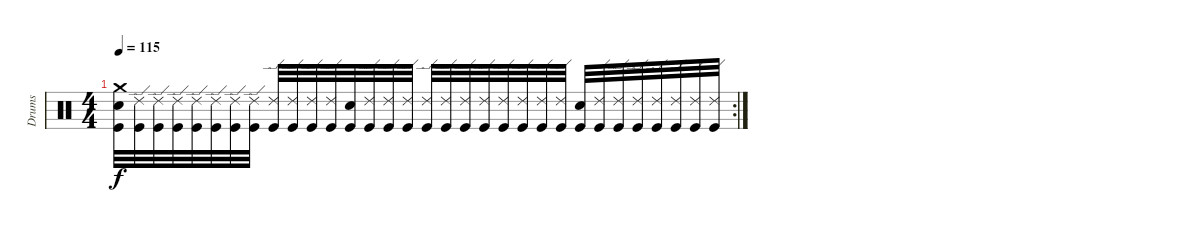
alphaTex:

\track ("Drums" "Drums") {instrument percussion}
\staff {score}
\articulation defaults
\rc 2
\ts (4 4)
\tempo 115
\clef neutral
\ks c
("Crash medium (hit)" "Snare (hit) 2" "Kick (hit)").32{dy f} ("Ride (edge) 2" "Kick (hit)").32 ("Ride (edge) 2" "Kick (hit)").32 ("Ride (edge) 2" "Kick (hit)").32 ("Ride (edge) 2" "Kick (hit)").32 ("Ride (edge) 2" "Kick (hit)").32 ("Ride (edge) 2" "Kick (hit)").32 ("Ride (edge) 2" "Kick (hit)").32 ("Ride (edge) 2" "Kick (hit)").32 ("Ride (edge) 2" "Kick (hit)").32 ("Ride (edge) 2" "Kick (hit)").32 ("Ride (edge) 2" "Kick (hit)").32 ("Snare (hit) 2" "Kick (hit)").32 ("Ride (edge) 2" "Kick (hit)").32 ("Ride (edge) 2" "Kick (hit)").32 ("Ride (edge) 2" "Kick (hit)").32 ("Ride (edge) 2" "Kick (hit)").32 ("Ride (edge) 2" "Kick (hit)").32 ("Ride (edge) 2" "Kick (hit)").32 ("Ride (edge) 2" "Kick (hit)").32 ("Ride (edge) 2" "Kick (hit)").32 ("Ride (edge) 2" "Kick (hit)").32 ("Ride (edge) 2" "Kick (hit)").32 ("Ride (edge) 2" "Kick (hit)").32 ("Snare (hit) 2" "Kick (hit)").32 ("Ride (edge) 2" "Kick (hit)").32 ("Ride (edge) 2" "Kick (hit)").32 ("Ride (edge) 2" "Kick (hit)").32 ("Ride (edge) 2" "Kick (hit)").32 ("Ride (edge) 2" "Kick (hit)").32 ("Ride (edge) 2" "Kick (hit)").32 ("Ride (edge) 2" "Kick (hit)").32
